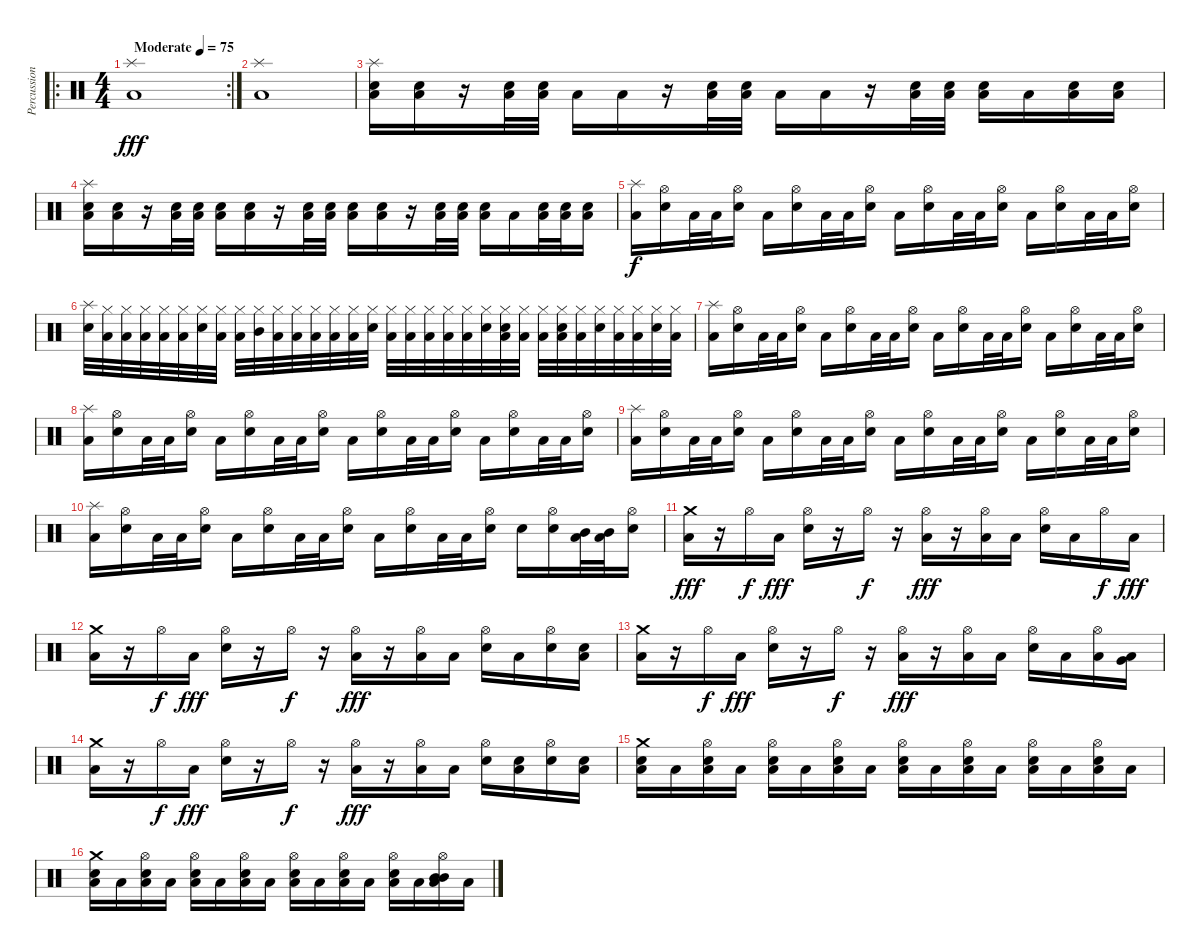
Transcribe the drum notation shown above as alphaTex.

\track ("Percussion" "Percussion") {instrument percussion}
\staff {score}
\articulation defaults
\ro
\rc 2
\ts (4 4)
\tempo (75 "Moderate")
\clef neutral
\ks c
("Splash (hit)" "Low Floor Tom (hit)").1{dy fff} |
("Splash (hit)" "Low Floor Tom (hit)").1 |
("Splash (hit)" "Snare (hit) 2" "Low Floor Tom (hit)").16 ("Snare (hit) 2" "Low Floor Tom (hit)").16 r.16 ("Snare (hit) 2" "Low Floor Tom (hit)").32 ("Snare (hit) 2" "Low Floor Tom (hit)").32 "Low Floor Tom (hit)".16 "Low Floor Tom (hit)".16 r.16 ("Snare (hit) 2" "Low Floor Tom (hit)").32 ("Snare (hit) 2" "Low Floor Tom (hit)").32 "Low Floor Tom (hit)".16 "Low Floor Tom (hit)".16 r.16 ("Snare (hit) 2" "Low Floor Tom (hit)").32 ("Snare (hit) 2" "Low Floor Tom (hit)").32 ("Snare (hit) 2" "Low Floor Tom (hit)").16 "Low Floor Tom (hit)".16 ("Snare (hit) 2" "Low Floor Tom (hit)").16 ("Snare (hit) 2" "Low Floor Tom (hit)").16 |
("Splash (hit)" "Snare (hit) 2" "Low Floor Tom (hit)").16 ("Snare (hit) 2" "Low Floor Tom (hit)").16 r.16 ("Snare (hit) 2" "Low Floor Tom (hit)").32 ("Snare (hit) 2" "Low Floor Tom (hit)").32 ("Snare (hit) 2" "Low Floor Tom (hit)").16 ("Snare (hit) 2" "Low Floor Tom (hit)").16 r.16 ("Snare (hit) 2" "Low Floor Tom (hit)").32 ("Snare (hit) 2" "Low Floor Tom (hit)").32 ("Snare (hit) 2" "Low Floor Tom (hit)").16 ("Snare (hit) 2" "Low Floor Tom (hit)").16 r.16 ("Snare (hit) 2" "Low Floor Tom (hit)").32 ("Snare (hit) 2" "Low Floor Tom (hit)").32 ("Snare (hit) 2" "Low Floor Tom (hit)").16 "Low Floor Tom (hit)".16 ("Snare (hit) 2" "Low Floor Tom (hit)").32 ("Snare (hit) 2" "Low Floor Tom (hit)").32 ("Snare (hit) 2" "Low Floor Tom (hit)").16 |
("Splash (hit)" "Low Floor Tom (hit)").16{dy f} ("Hi-Hat (open)" "Snare (hit) 2").16 "Low Floor Tom (hit)".32 "Low Floor Tom (hit)".32 ("Hi-Hat (open)" "Snare (hit) 2").16 "Low Floor Tom (hit)".16 ("Hi-Hat (open)" "Snare (hit) 2").16 "Low Floor Tom (hit)".32 "Low Floor Tom (hit)".32 ("Hi-Hat (open)" "Snare (hit) 2").16 "Low Floor Tom (hit)".16 ("Hi-Hat (open)" "Snare (hit) 2").16 "Low Floor Tom (hit)".32 "Low Floor Tom (hit)".32 ("Hi-Hat (open)" "Snare (hit) 2").16 "Low Floor Tom (hit)".16 ("Hi-Hat (open)" "Snare (hit) 2").16 "Low Floor Tom (hit)".32 "Low Floor Tom (hit)".32 ("Hi-Hat (open)" "Snare (hit) 2").16 |
("Splash (hit)" "Snare (hit) 2").32 ("Hi-Hat (closed)" "Low Floor Tom (hit)").32 ("Hi-Hat (closed)" "Low Floor Tom (hit)").32 ("Hi-Hat (closed)" "Low Tom (hit)").32 ("Hi-Hat (closed)" "Low Floor Tom (hit)").32 ("Hi-Hat (closed)" "Low Floor Tom (hit)").32 ("Hi-Hat (closed)" "Snare (hit) 2").32 ("Hi-Hat (closed)" "Low Floor Tom (hit)").32 ("Hi-Hat (closed)" "Low Floor Tom (hit)").32 ("Hi-Hat (closed)" "Mid Tom (hit)").32 ("Hi-Hat (closed)" "Low Floor Tom (hit)").32 ("Hi-Hat (closed)" "Low Floor Tom (hit)").32 ("Hi-Hat (closed)" "Low Tom (hit)").32 ("Hi-Hat (closed)" "Low Floor Tom (hit)").32 ("Hi-Hat (closed)" "Low Floor Tom (hit)").32 ("Hi-Hat (closed)" "Snare (hit) 2").32 ("Hi-Hat (closed)" "Low Floor Tom (hit)").32 ("Hi-Hat (closed)" "Low Floor Tom (hit)").32 ("Hi-Hat (closed)" "Low Tom (hit)").32 ("Hi-Hat (closed)" "Low Floor Tom (hit)").32 ("Hi-Hat (closed)" "Low Floor Tom (hit)").32 ("Hi-Hat (closed)" "Snare (hit) 2").32 ("Hi-Hat (closed)" "Snare (hit) 2" "Low Floor Tom (hit)").32 ("Hi-Hat (closed)" "Low Floor Tom (hit)").32 ("Hi-Hat (closed)" "Low Floor Tom (hit)").32 ("Hi-Hat (closed)" "Snare (hit) 2" "Low Floor Tom (hit)").32 ("Hi-Hat (closed)" "Low Floor Tom (hit)").32 ("Hi-Hat (closed)" "Snare (hit) 2").32 ("Hi-Hat (closed)" "Low Floor Tom (hit)").32 ("Hi-Hat (closed)" "Low Floor Tom (hit)").32 ("Hi-Hat (closed)" "Snare (hit) 2").32 ("Hi-Hat (closed)" "Low Floor Tom (hit)").32 |
("Splash (hit)" "Low Floor Tom (hit)").16 ("Hi-Hat (open)" "Snare (hit) 2").16 "Low Floor Tom (hit)".32 "Low Floor Tom (hit)".32 ("Hi-Hat (open)" "Snare (hit) 2").16 "Low Floor Tom (hit)".16 ("Hi-Hat (open)" "Snare (hit) 2").16 "Low Floor Tom (hit)".32 "Low Floor Tom (hit)".32 ("Hi-Hat (open)" "Snare (hit) 2").16 "Low Floor Tom (hit)".16 ("Hi-Hat (open)" "Snare (hit) 2").16 "Low Floor Tom (hit)".32 "Low Floor Tom (hit)".32 ("Hi-Hat (open)" "Snare (hit) 2").16 "Low Floor Tom (hit)".16 ("Hi-Hat (open)" "Snare (hit) 2").16 "Low Floor Tom (hit)".32 "Low Floor Tom (hit)".32 ("Hi-Hat (open)" "Snare (hit) 2").16 |
("Splash (hit)" "Low Floor Tom (hit)").16 ("Hi-Hat (open)" "Snare (hit) 2").16 "Low Floor Tom (hit)".32 "Low Floor Tom (hit)".32 ("Hi-Hat (open)" "Snare (hit) 2").16 "Low Floor Tom (hit)".16 ("Hi-Hat (open)" "Snare (hit) 2").16 "Low Floor Tom (hit)".32 "Low Floor Tom (hit)".32 ("Hi-Hat (open)" "Snare (hit) 2").16 "Low Floor Tom (hit)".16 ("Hi-Hat (open)" "Snare (hit) 2").16 "Low Floor Tom (hit)".32 "Low Floor Tom (hit)".32 ("Hi-Hat (open)" "Snare (hit) 2").16 "Low Floor Tom (hit)".16 ("Hi-Hat (open)" "Snare (hit) 2").16 "Low Floor Tom (hit)".32 "Low Floor Tom (hit)".32 ("Hi-Hat (open)" "Snare (hit) 2").16 |
("Splash (hit)" "Low Floor Tom (hit)").16 ("Hi-Hat (open)" "Snare (hit) 2").16 "Low Floor Tom (hit)".32 "Low Floor Tom (hit)".32 ("Hi-Hat (open)" "Snare (hit) 2").16 "Low Floor Tom (hit)".16 ("Hi-Hat (open)" "Snare (hit) 2").16 "Low Floor Tom (hit)".32 "Low Floor Tom (hit)".32 ("Hi-Hat (open)" "Snare (hit) 2").16 "Low Floor Tom (hit)".16 ("Hi-Hat (open)" "Snare (hit) 2").16 "Low Floor Tom (hit)".32 "Low Floor Tom (hit)".32 ("Hi-Hat (open)" "Snare (hit) 2").16 "Low Floor Tom (hit)".16 ("Hi-Hat (open)" "Snare (hit) 2").16 "Low Floor Tom (hit)".32 "Low Floor Tom (hit)".32 ("Hi-Hat (open)" "Snare (hit) 2").16 |
("Splash (hit)" "Low Floor Tom (hit)").16 ("Hi-Hat (open)" "Snare (hit) 2").16 "Low Floor Tom (hit)".32 "Low Floor Tom (hit)".32 ("Hi-Hat (open)" "Snare (hit) 2").16 "Low Floor Tom (hit)".16 ("Hi-Hat (open)" "Snare (hit) 2").16 "Low Floor Tom (hit)".32 "Low Floor Tom (hit)".32 ("Hi-Hat (open)" "Snare (hit) 2").16 "Low Floor Tom (hit)".16 ("Hi-Hat (open)" "Snare (hit) 2").16 "Low Floor Tom (hit)".32 "Low Floor Tom (hit)".32 ("Hi-Hat (open)" "Snare (hit) 2").16 "Snare (hit) 2".16 ("Hi-Hat (open)" "Snare (hit) 2").16 ("Mid Tom (hit)" "Low Floor Tom (hit)").32 ("Mid Tom (hit)" "Low Floor Tom (hit)").32 ("Hi-Hat (open)" "Snare (hit) 2").16 |
("Crash medium (hit)" "Low Floor Tom (hit)").16{dy fff} r.16 "Hi-Hat (open)".16{dy f} "Low Floor Tom (hit)".16{dy fff} ("Hi-Hat (open)" "Snare (hit) 2").16 r.16 "Hi-Hat (open)".16{dy f} r.16 ("Hi-Hat (open)" "Low Floor Tom (hit)").16{dy fff} r.16 ("Hi-Hat (open)" "Low Floor Tom (hit)").16 "Low Floor Tom (hit)".16 ("Hi-Hat (open)" "Snare (hit) 2").16 "Low Floor Tom (hit)".16 "Hi-Hat (open)".16{dy f} "Low Floor Tom (hit)".16{dy fff} |
("Crash medium (hit)" "Low Floor Tom (hit)").16 r.16 "Hi-Hat (open)".16{dy f} "Low Floor Tom (hit)".16{dy fff} ("Hi-Hat (open)" "Snare (hit) 2").16 r.16 "Hi-Hat (open)".16{dy f} r.16 ("Hi-Hat (open)" "Low Floor Tom (hit)").16{dy fff} r.16 ("Hi-Hat (open)" "Low Floor Tom (hit)").16 "Low Floor Tom (hit)".16 ("Hi-Hat (open)" "Snare (hit) 2").16 "Low Floor Tom (hit)".16 ("Hi-Hat (open)" "Snare (hit) 2").16 ("Snare (hit) 2" "Low Floor Tom (hit)").16 |
("Crash medium (hit)" "Low Floor Tom (hit)").16 r.16 "Hi-Hat (open)".16{dy f} "Low Floor Tom (hit)".16{dy fff} ("Hi-Hat (open)" "Snare (hit) 2").16 r.16 "Hi-Hat (open)".16{dy f} r.16 ("Hi-Hat (open)" "Low Floor Tom (hit)").16{dy fff} r.16 ("Hi-Hat (open)" "Low Floor Tom (hit)").16 "Low Floor Tom (hit)".16 ("Hi-Hat (open)" "Snare (hit) 2").16 "Low Floor Tom (hit)".16 ("Hi-Hat (open)" "Low Tom (hit)").16 ("Very Low Tom (hit)" "Low Floor Tom (hit)").16 |
("Crash medium (hit)" "Low Floor Tom (hit)").16 r.16 "Hi-Hat (open)".16{dy f} "Low Floor Tom (hit)".16{dy fff} ("Hi-Hat (open)" "Snare (hit) 2").16 r.16 "Hi-Hat (open)".16{dy f} r.16 ("Hi-Hat (open)" "Low Floor Tom (hit)").16{dy fff} r.16 ("Hi-Hat (open)" "Low Floor Tom (hit)").16 "Low Floor Tom (hit)".16 ("Hi-Hat (open)" "Snare (hit) 2").16 ("Snare (hit) 2" "Low Floor Tom (hit)").16 ("Hi-Hat (open)" "Snare (hit) 2").16 ("Snare (hit) 2" "Low Floor Tom (hit)").16 |
("Crash medium (hit)" "Snare (hit) 2" "Low Floor Tom (hit)").16 "Low Floor Tom (hit)".16 ("Hi-Hat (open)" "Snare (hit) 2" "Low Floor Tom (hit)").16 "Low Floor Tom (hit)".16 ("Hi-Hat (open)" "Snare (hit) 2" "Low Floor Tom (hit)").16 "Low Floor Tom (hit)".16 ("Hi-Hat (open)" "Snare (hit) 2" "Low Floor Tom (hit)").16 "Low Floor Tom (hit)".16 ("Hi-Hat (open)" "Snare (hit) 2" "Low Floor Tom (hit)").16 "Low Floor Tom (hit)".16 ("Hi-Hat (open)" "Snare (hit) 2" "Low Floor Tom (hit)").16 "Low Floor Tom (hit)".16 ("Hi-Hat (open)" "Snare (hit) 2" "Low Floor Tom (hit)").16 "Low Floor Tom (hit)".16 ("Hi-Hat (open)" "Snare (hit) 2" "Low Floor Tom (hit)").16 "Low Floor Tom (hit)".16 |
("Crash medium (hit)" "Snare (hit) 2" "Low Floor Tom (hit)").16 "Low Floor Tom (hit)".16 ("Hi-Hat (open)" "Snare (hit) 2" "Low Floor Tom (hit)").16 "Low Floor Tom (hit)".16 ("Hi-Hat (open)" "Snare (hit) 2" "Low Floor Tom (hit)").16 "Low Floor Tom (hit)".16 ("Hi-Hat (open)" "Snare (hit) 2" "Low Floor Tom (hit)").16 "Low Floor Tom (hit)".16 ("Hi-Hat (open)" "Snare (hit) 2" "Low Floor Tom (hit)").16 "Low Floor Tom (hit)".16 ("Hi-Hat (open)" "Snare (hit) 2" "Low Floor Tom (hit)").16 "Low Floor Tom (hit)".16 ("Hi-Hat (open)" "Snare (hit) 2" "Low Floor Tom (hit)").16 "Low Floor Tom (hit)".16 ("Hi-Hat (open)" "Mid Tom (hit)" "Mid Tom (hit)" "Low Floor Tom (hit)").16 "Low Floor Tom (hit)".16
